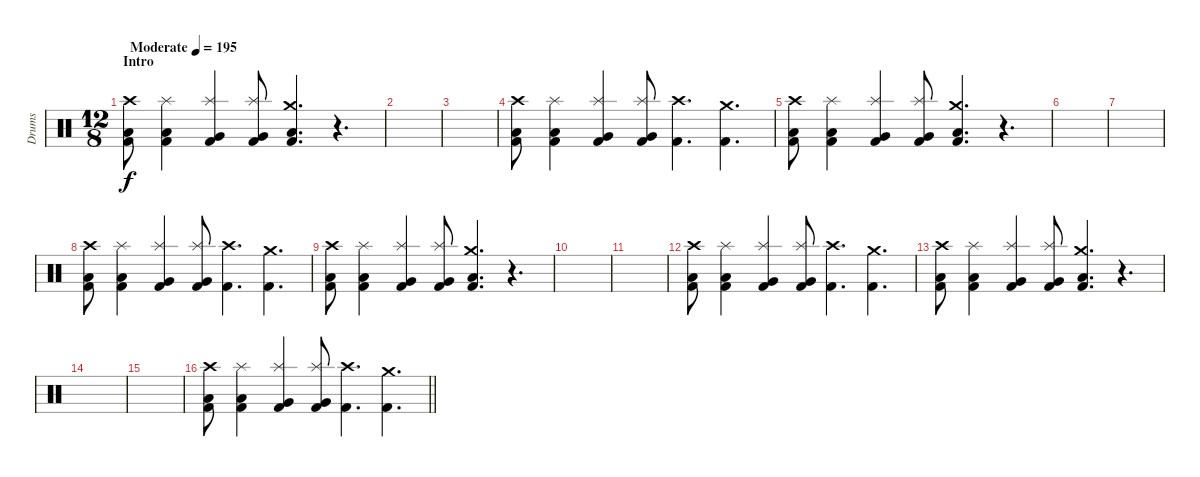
\track ("Drums" "Drums") {instrument percussion}
\staff {score}
\articulation defaults
\ts (12 8)
\section ("" "Intro")
\tempo (195 "Moderate")
\clef neutral
\ks c
("Crash high (hit)" "Low Tom (hit)" "Kick (hit) 2").8{dy f} ("Splash (hit)" "Low Tom (hit)" "Kick (hit) 2").4 ("Splash (hit)" "Very Low Tom (hit)" "Kick (hit) 2").4 ("Splash (hit)" "Very Low Tom (hit)" "Kick (hit) 2").8 ("Crash medium (hit)" "Low Floor Tom (hit)" "Kick (hit) 2").4{d} r.4{d} |
|
|
("Crash high (hit)" "Low Tom (hit)" "Kick (hit) 2").8 ("Splash (hit)" "Low Tom (hit)" "Kick (hit) 2").4 ("Splash (hit)" "Very Low Tom (hit)" "Kick (hit) 2").4 ("Splash (hit)" "Very Low Tom (hit)" "Kick (hit) 2").8 ("Crash high (hit)" "Kick (hit) 2").4{d} ("Crash medium (hit)" "Kick (hit) 2").4{d} |
("Crash high (hit)" "Low Tom (hit)" "Kick (hit) 2").8 ("Splash (hit)" "Low Tom (hit)" "Kick (hit) 2").4 ("Splash (hit)" "Very Low Tom (hit)" "Kick (hit) 2").4 ("Splash (hit)" "Very Low Tom (hit)" "Kick (hit) 2").8 ("Crash medium (hit)" "Low Floor Tom (hit)" "Kick (hit) 2").4{d} r.4{d} |
|
|
("Crash high (hit)" "Low Tom (hit)" "Kick (hit) 2").8 ("Splash (hit)" "Low Tom (hit)" "Kick (hit) 2").4 ("Splash (hit)" "Very Low Tom (hit)" "Kick (hit) 2").4 ("Splash (hit)" "Very Low Tom (hit)" "Kick (hit) 2").8 ("Crash high (hit)" "Kick (hit) 2").4{d} ("Crash medium (hit)" "Kick (hit) 2").4{d} |
("Crash high (hit)" "Low Tom (hit)" "Kick (hit) 2").8 ("Splash (hit)" "Low Tom (hit)" "Kick (hit) 2").4 ("Splash (hit)" "Very Low Tom (hit)" "Kick (hit) 2").4 ("Splash (hit)" "Very Low Tom (hit)" "Kick (hit) 2").8 ("Crash medium (hit)" "Low Floor Tom (hit)" "Kick (hit) 2").4{d} r.4{d} |
|
|
("Crash high (hit)" "Low Tom (hit)" "Kick (hit) 2").8 ("Splash (hit)" "Low Tom (hit)" "Kick (hit) 2").4 ("Splash (hit)" "Very Low Tom (hit)" "Kick (hit) 2").4 ("Splash (hit)" "Very Low Tom (hit)" "Kick (hit) 2").8 ("Crash high (hit)" "Kick (hit) 2").4{d} ("Crash medium (hit)" "Kick (hit) 2").4{d} |
("Crash high (hit)" "Low Tom (hit)" "Kick (hit) 2").8 ("Splash (hit)" "Low Tom (hit)" "Kick (hit) 2").4 ("Splash (hit)" "Very Low Tom (hit)" "Kick (hit) 2").4 ("Splash (hit)" "Very Low Tom (hit)" "Kick (hit) 2").8 ("Crash medium (hit)" "Low Floor Tom (hit)" "Kick (hit) 2").4{d} r.4{d} |
|
|
\barLineRight lightlight
("Crash high (hit)" "Low Tom (hit)" "Kick (hit) 2").8 ("Splash (hit)" "Low Tom (hit)" "Kick (hit) 2").4 ("Splash (hit)" "Very Low Tom (hit)" "Kick (hit) 2").4 ("Splash (hit)" "Very Low Tom (hit)" "Kick (hit) 2").8 ("Crash high (hit)" "Kick (hit) 2").4{d} ("Crash medium (hit)" "Kick (hit) 2").4{d}
